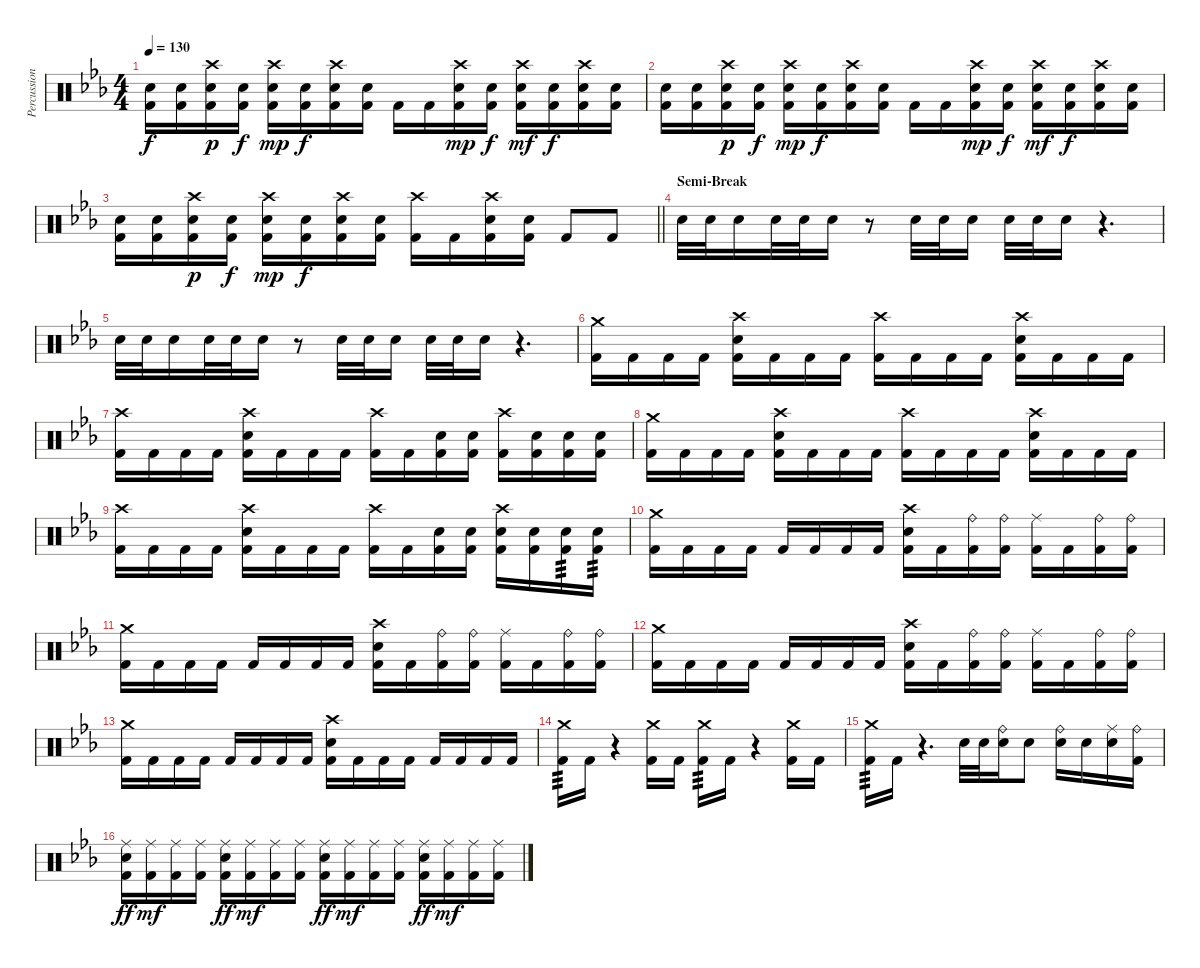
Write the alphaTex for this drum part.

\track ("Percussion" "Percussion") {instrument percussion}
\staff {score}
\articulation defaults
\ts (4 4)
\tempo 130
\clef neutral
\ks eb
("Electric Snare (hit)" "Kick (hit) 2").16{dy f} ("Electric Snare (hit)" "Kick (hit) 2").16 ("Crash high (hit)" "Electric Snare (hit)" "Kick (hit) 2").16{dy p} ("Electric Snare (hit)" "Kick (hit) 2").16{dy f} ("Crash high (hit)" "Electric Snare (hit)" "Kick (hit) 2").16{dy mp} ("Electric Snare (hit)" "Kick (hit) 2").16{dy f} ("Crash high (hit)" "Electric Snare (hit)" "Kick (hit) 2").16 ("Electric Snare (hit)" "Kick (hit) 2").16 "Kick (hit) 2".16 "Kick (hit) 2".16 ("Crash high (hit)" "Electric Snare (hit)" "Kick (hit) 2").16{dy mp} ("Electric Snare (hit)" "Kick (hit) 2").16{dy f} ("Crash high (hit)" "Electric Snare (hit)" "Kick (hit) 2").16{dy mf} ("Electric Snare (hit)" "Kick (hit) 2").16{dy f} ("Crash high (hit)" "Electric Snare (hit)" "Kick (hit) 2").16 ("Electric Snare (hit)" "Kick (hit) 2").16 |
("Electric Snare (hit)" "Kick (hit) 2").16 ("Electric Snare (hit)" "Kick (hit) 2").16 ("Crash high (hit)" "Electric Snare (hit)" "Kick (hit) 2").16{dy p} ("Electric Snare (hit)" "Kick (hit) 2").16{dy f} ("Crash high (hit)" "Electric Snare (hit)" "Kick (hit) 2").16{dy mp} ("Electric Snare (hit)" "Kick (hit) 2").16{dy f} ("Crash high (hit)" "Electric Snare (hit)" "Kick (hit) 2").16 ("Electric Snare (hit)" "Kick (hit) 2").16 "Kick (hit) 2".16 "Kick (hit) 2".16 ("Crash high (hit)" "Electric Snare (hit)" "Kick (hit) 2").16{dy mp} ("Electric Snare (hit)" "Kick (hit) 2").16{dy f} ("Crash high (hit)" "Electric Snare (hit)" "Kick (hit) 2").16{dy mf} ("Electric Snare (hit)" "Kick (hit) 2").16{dy f} ("Crash high (hit)" "Electric Snare (hit)" "Kick (hit) 2").16 ("Electric Snare (hit)" "Kick (hit) 2").16 |
\barLineRight lightlight
("Electric Snare (hit)" "Kick (hit) 2").16 ("Electric Snare (hit)" "Kick (hit) 2").16 ("Crash high (hit)" "Electric Snare (hit)" "Kick (hit) 2").16{dy p} ("Electric Snare (hit)" "Kick (hit) 2").16{dy f} ("Crash high (hit)" "Electric Snare (hit)" "Kick (hit) 2").16{dy mp} ("Electric Snare (hit)" "Kick (hit) 2").16{dy f} ("Crash high (hit)" "Electric Snare (hit)" "Kick (hit) 2").16 ("Electric Snare (hit)" "Kick (hit) 2").16 ("Crash high (hit)" "Kick (hit) 2").16 "Kick (hit) 2".16 ("Crash high (hit)" "Electric Snare (hit)" "Kick (hit) 2").16 ("Electric Snare (hit)" "Kick (hit) 2").16 "Kick (hit) 2".8 "Kick (hit) 2".8 |
\section ("" "Semi-Break")
"Electric Snare (hit)".32 "Electric Snare (hit)".32 "Electric Snare (hit)".16 "Electric Snare (hit)".32 "Electric Snare (hit)".32 "Electric Snare (hit)".16 r.8 "Electric Snare (hit)".32 "Electric Snare (hit)".32 "Electric Snare (hit)".16 "Electric Snare (hit)".32 "Electric Snare (hit)".32 "Electric Snare (hit)".16 r.4{d} |
"Electric Snare (hit)".32 "Electric Snare (hit)".32 "Electric Snare (hit)".16 "Electric Snare (hit)".32 "Electric Snare (hit)".32 "Electric Snare (hit)".16 r.8 "Electric Snare (hit)".32 "Electric Snare (hit)".32 "Electric Snare (hit)".16 "Electric Snare (hit)".32 "Electric Snare (hit)".32 "Electric Snare (hit)".16 r.4{d} |
("Crash medium (hit)" "Kick (hit) 2").16 "Kick (hit) 2".16 "Kick (hit) 2".16 "Kick (hit) 2".16 ("Crash high (hit)" "Electric Snare (hit)" "Kick (hit) 2").16 "Kick (hit) 2".16 "Kick (hit) 2".16 "Kick (hit) 2".16 ("Crash high (hit)" "Kick (hit) 2").16 "Kick (hit) 2".16 "Kick (hit) 2".16 "Kick (hit) 2".16 ("Crash high (hit)" "Electric Snare (hit)" "Kick (hit) 2").16 "Kick (hit) 2".16 "Kick (hit) 2".16 "Kick (hit) 2".16 |
("Crash high (hit)" "Kick (hit) 2").16 "Kick (hit) 2".16 "Kick (hit) 2".16 "Kick (hit) 2".16 ("Crash high (hit)" "Electric Snare (hit)" "Kick (hit) 2").16 "Kick (hit) 2".16 "Kick (hit) 2".16 "Kick (hit) 2".16 ("Crash high (hit)" "Kick (hit) 2").16 "Kick (hit) 2".16 ("Electric Snare (hit)" "Kick (hit) 2").16 ("Electric Snare (hit)" "Kick (hit) 2").16 ("Crash high (hit)" "Kick (hit) 2").16 ("Electric Snare (hit)" "Kick (hit) 2").16 ("Electric Snare (hit)" "Kick (hit) 2").16 ("Electric Snare (hit)" "Kick (hit) 2").16 |
("Crash medium (hit)" "Kick (hit) 2").16 "Kick (hit) 2".16 "Kick (hit) 2".16 "Kick (hit) 2".16 ("Crash high (hit)" "Electric Snare (hit)" "Kick (hit) 2").16 "Kick (hit) 2".16 "Kick (hit) 2".16 "Kick (hit) 2".16 ("Crash high (hit)" "Kick (hit) 2").16 "Kick (hit) 2".16 "Kick (hit) 2".16 "Kick (hit) 2".16 ("Crash high (hit)" "Electric Snare (hit)" "Kick (hit) 2").16 "Kick (hit) 2".16 "Kick (hit) 2".16 "Kick (hit) 2".16 |
("Crash high (hit)" "Kick (hit) 2").16 "Kick (hit) 2".16 "Kick (hit) 2".16 "Kick (hit) 2".16 ("Crash high (hit)" "Electric Snare (hit)" "Kick (hit) 2").16 "Kick (hit) 2".16 "Kick (hit) 2".16 "Kick (hit) 2".16 ("Crash high (hit)" "Kick (hit) 2").16 "Kick (hit) 2".16 ("Electric Snare (hit)" "Kick (hit) 2").16 ("Electric Snare (hit)" "Kick (hit) 2").16 ("Crash high (hit)" "Electric Snare (hit)" "Kick (hit) 2").16 ("Electric Snare (hit)" "Kick (hit) 2").16 ("Electric Snare (hit)" "Kick (hit) 2").16{tp 3} ("Electric Snare (hit)" "Kick (hit) 2").16{tp 3} |
("Crash medium (hit)" "Kick (hit) 2").16 "Kick (hit) 2".16 "Kick (hit) 2".16 "Kick (hit) 2".16 "Kick (hit) 2".16 "Kick (hit) 2".16 "Kick (hit) 2".16 "Kick (hit) 2".16 ("Crash high (hit)" "Electric Snare (hit)" "Kick (hit) 2").16 "Kick (hit) 2".16 ("Ride (bell)" "Kick (hit) 2").16 ("Ride (bell)" "Kick (hit) 2").16 ("Ride (middle)" "Kick (hit) 2").16 "Kick (hit) 2".16 ("Ride (bell)" "Kick (hit) 2").16 ("Ride (bell)" "Kick (hit) 2").16 |
("Crash medium (hit)" "Kick (hit) 2").16 "Kick (hit) 2".16 "Kick (hit) 2".16 "Kick (hit) 2".16 "Kick (hit) 2".16 "Kick (hit) 2".16 "Kick (hit) 2".16 "Kick (hit) 2".16 ("Crash high (hit)" "Electric Snare (hit)" "Kick (hit) 2").16 "Kick (hit) 2".16 ("Ride (bell)" "Kick (hit) 2").16 ("Ride (bell)" "Kick (hit) 2").16 ("Ride (middle)" "Kick (hit) 2").16 "Kick (hit) 2".16 ("Ride (bell)" "Kick (hit) 2").16 ("Ride (bell)" "Kick (hit) 2").16 |
("Crash medium (hit)" "Kick (hit) 2").16 "Kick (hit) 2".16 "Kick (hit) 2".16 "Kick (hit) 2".16 "Kick (hit) 2".16 "Kick (hit) 2".16 "Kick (hit) 2".16 "Kick (hit) 2".16 ("Crash high (hit)" "Electric Snare (hit)" "Kick (hit) 2").16 "Kick (hit) 2".16 ("Ride (bell)" "Kick (hit) 2").16 ("Ride (bell)" "Kick (hit) 2").16 ("Ride (middle)" "Kick (hit) 2").16 "Kick (hit) 2".16 ("Ride (bell)" "Kick (hit) 2").16 ("Ride (bell)" "Kick (hit) 2").16 |
("Crash medium (hit)" "Kick (hit) 2").16 "Kick (hit) 2".16 "Kick (hit) 2".16 "Kick (hit) 2".16 "Kick (hit) 2".16 "Kick (hit) 2".16 "Kick (hit) 2".16 "Kick (hit) 2".16 ("Crash high (hit)" "Electric Snare (hit)" "Kick (hit) 2").16 "Kick (hit) 2".16 "Kick (hit) 2".16 "Kick (hit) 2".16 "Kick (hit) 2".16 "Kick (hit) 2".16 "Kick (hit) 2".16 "Kick (hit) 2".16 |
("Crash medium (hit)" "Kick (hit) 2").16{tp 3} "Kick (hit) 2".16 r.4 ("Crash medium (hit)" "Kick (hit) 2").16 "Kick (hit) 2".16 ("Crash medium (hit)" "Kick (hit) 2").16{tp 3} "Kick (hit) 2".16 r.4 ("Crash medium (hit)" "Kick (hit) 2").16 "Kick (hit) 2".16 |
("Crash medium (hit)" "Kick (hit) 2").16{tp 3} "Kick (hit) 2".16 r.4{d} "Electric Snare (hit)".32 "Electric Snare (hit)".32 ("Ride (bell)" "Electric Snare (hit)").16 "Electric Snare (hit)".8 ("Ride (bell)" "Electric Snare (hit)").16 "Electric Snare (hit)".16 ("Ride (middle)" "Electric Snare (hit)").16 ("Ride (bell)" "Kick (hit) 2").16 |
("Ride (middle)" "Electric Snare (hit)" "Kick (hit) 2").16{dy ff} ("Ride (middle)" "Kick (hit) 2").16{dy mf} ("Ride (middle)" "Kick (hit) 2").16 ("Ride (middle)" "Kick (hit) 2").16 ("Ride (middle)" "Electric Snare (hit)" "Kick (hit) 2").16{dy ff} ("Ride (middle)" "Kick (hit) 2").16{dy mf} ("Ride (middle)" "Kick (hit) 2").16 ("Ride (middle)" "Kick (hit) 2").16 ("Ride (middle)" "Electric Snare (hit)" "Kick (hit) 2").16{dy ff} ("Ride (middle)" "Kick (hit) 2").16{dy mf} ("Ride (middle)" "Kick (hit) 2").16 ("Ride (middle)" "Kick (hit) 2").16 ("Ride (middle)" "Electric Snare (hit)" "Kick (hit) 2").16{dy ff} ("Ride (middle)" "Kick (hit) 2").16{dy mf} ("Ride (middle)" "Kick (hit) 2").16 ("Ride (middle)" "Kick (hit) 2").16
